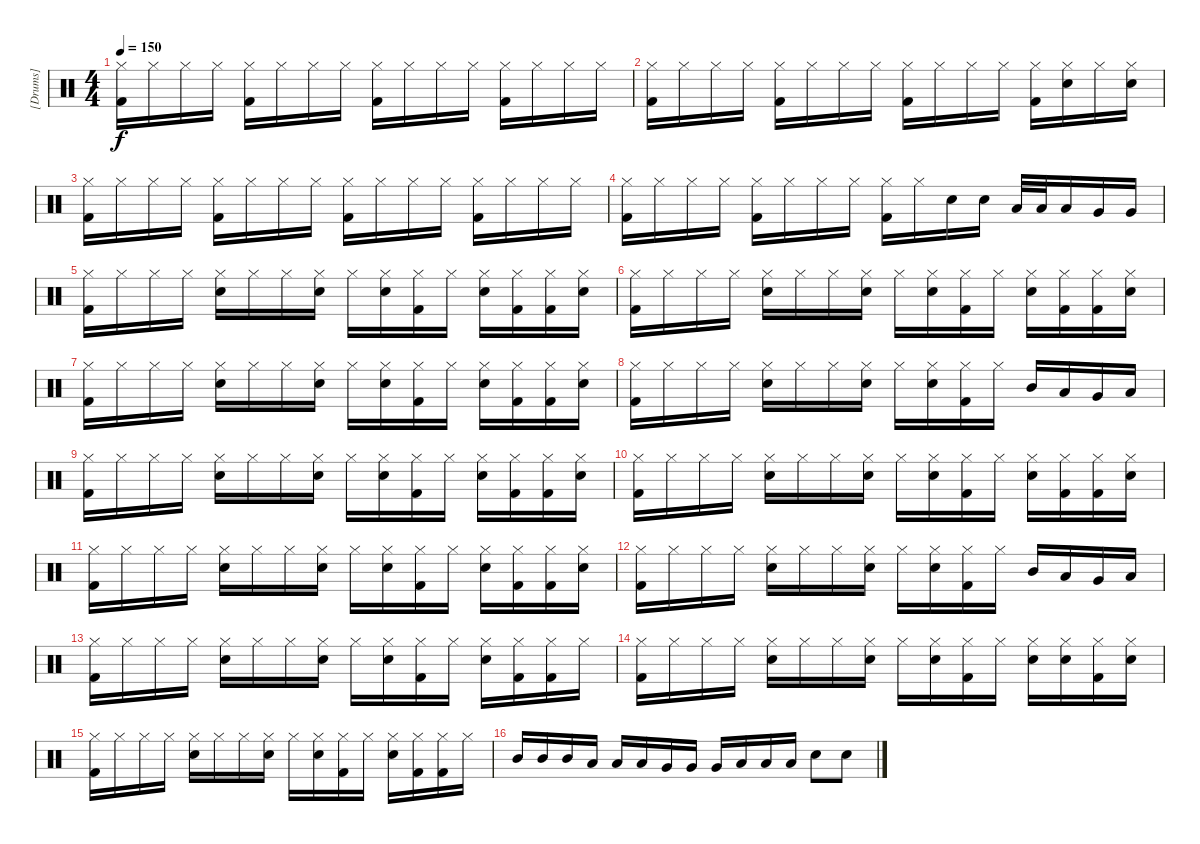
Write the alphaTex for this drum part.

\track ("[Drums]" "[Drums]") {instrument percussion}
\staff {score}
\articulation defaults
\ts (4 4)
\tempo 150
\clef neutral
\ks c
("Hi-Hat (closed)" "Kick (hit) 2").16{dy f} "Hi-Hat (closed)".16 "Hi-Hat (closed)".16 "Hi-Hat (closed)".16 ("Hi-Hat (closed)" "Kick (hit) 2").16 "Hi-Hat (closed)".16 "Hi-Hat (closed)".16 "Hi-Hat (closed)".16 ("Hi-Hat (closed)" "Kick (hit) 2").16 "Hi-Hat (closed)".16 "Hi-Hat (closed)".16 "Hi-Hat (closed)".16 ("Hi-Hat (closed)" "Kick (hit) 2").16 "Hi-Hat (closed)".16 "Hi-Hat (closed)".16 "Hi-Hat (closed)".16 |
("Hi-Hat (closed)" "Kick (hit) 2").16 "Hi-Hat (closed)".16 "Hi-Hat (closed)".16 "Hi-Hat (closed)".16 ("Hi-Hat (closed)" "Kick (hit) 2").16 "Hi-Hat (closed)".16 "Hi-Hat (closed)".16 "Hi-Hat (closed)".16 ("Hi-Hat (closed)" "Kick (hit) 2").16 "Hi-Hat (closed)".16 "Hi-Hat (closed)".16 "Hi-Hat (closed)".16 ("Hi-Hat (closed)" "Kick (hit) 2").16 ("Hi-Hat (closed)" "Electric Snare (hit)").16 "Hi-Hat (closed)".16 ("Hi-Hat (closed)" "Electric Snare (hit)").16 |
("Hi-Hat (closed)" "Kick (hit) 2").16 "Hi-Hat (closed)".16 "Hi-Hat (closed)".16 "Hi-Hat (closed)".16 ("Hi-Hat (closed)" "Kick (hit) 2").16 "Hi-Hat (closed)".16 "Hi-Hat (closed)".16 "Hi-Hat (closed)".16 ("Hi-Hat (closed)" "Kick (hit) 2").16 "Hi-Hat (closed)".16 "Hi-Hat (closed)".16 "Hi-Hat (closed)".16 ("Hi-Hat (closed)" "Kick (hit) 2").16 "Hi-Hat (closed)".16 "Hi-Hat (closed)".16 "Hi-Hat (closed)".16 |
("Hi-Hat (closed)" "Kick (hit) 2").16 "Hi-Hat (closed)".16 "Hi-Hat (closed)".16 "Hi-Hat (closed)".16 ("Hi-Hat (closed)" "Kick (hit) 2").16 "Hi-Hat (closed)".16 "Hi-Hat (closed)".16 "Hi-Hat (closed)".16 ("Hi-Hat (closed)" "Kick (hit) 2").16 "Hi-Hat (closed)".16 "Electric Snare (hit)".16 "Electric Snare (hit)".16 "Low Tom (hit)".32 "Low Tom (hit)".32 "Low Tom (hit)".16 "Very Low Tom (hit)".16 "Very Low Tom (hit)".16 |
("Hi-Hat (closed)" "Kick (hit) 2").16 "Hi-Hat (closed)".16 "Hi-Hat (closed)".16 "Hi-Hat (closed)".16 ("Hi-Hat (closed)" "Electric Snare (hit)").16 "Hi-Hat (closed)".16 "Hi-Hat (closed)".16 ("Hi-Hat (closed)" "Electric Snare (hit)").16 "Hi-Hat (closed)".16 ("Hi-Hat (closed)" "Electric Snare (hit)").16 ("Hi-Hat (closed)" "Kick (hit) 2").16 "Hi-Hat (closed)".16 ("Hi-Hat (closed)" "Electric Snare (hit)").16 ("Hi-Hat (closed)" "Kick (hit) 2").16 ("Hi-Hat (closed)" "Kick (hit) 2").16 ("Hi-Hat (closed)" "Electric Snare (hit)").16 |
("Hi-Hat (closed)" "Kick (hit) 2").16 "Hi-Hat (closed)".16 "Hi-Hat (closed)".16 "Hi-Hat (closed)".16 ("Hi-Hat (closed)" "Electric Snare (hit)").16 "Hi-Hat (closed)".16 "Hi-Hat (closed)".16 ("Hi-Hat (closed)" "Electric Snare (hit)").16 "Hi-Hat (closed)".16 ("Hi-Hat (closed)" "Electric Snare (hit)").16 ("Hi-Hat (closed)" "Kick (hit) 2").16 "Hi-Hat (closed)".16 ("Hi-Hat (closed)" "Electric Snare (hit)").16 ("Hi-Hat (closed)" "Kick (hit) 2").16 ("Hi-Hat (closed)" "Kick (hit) 2").16 ("Hi-Hat (closed)" "Electric Snare (hit)").16 |
("Hi-Hat (closed)" "Kick (hit) 2").16 "Hi-Hat (closed)".16 "Hi-Hat (closed)".16 "Hi-Hat (closed)".16 ("Hi-Hat (closed)" "Electric Snare (hit)").16 "Hi-Hat (closed)".16 "Hi-Hat (closed)".16 ("Hi-Hat (closed)" "Electric Snare (hit)").16 "Hi-Hat (closed)".16 ("Hi-Hat (closed)" "Electric Snare (hit)").16 ("Hi-Hat (closed)" "Kick (hit) 2").16 "Hi-Hat (closed)".16 ("Hi-Hat (closed)" "Electric Snare (hit)").16 ("Hi-Hat (closed)" "Kick (hit) 2").16 ("Hi-Hat (closed)" "Kick (hit) 2").16 ("Hi-Hat (closed)" "Electric Snare (hit)").16 |
("Hi-Hat (closed)" "Kick (hit) 2").16 "Hi-Hat (closed)".16 "Hi-Hat (closed)".16 "Hi-Hat (closed)".16 ("Hi-Hat (closed)" "Electric Snare (hit)").16 "Hi-Hat (closed)".16 "Hi-Hat (closed)".16 ("Hi-Hat (closed)" "Electric Snare (hit)").16 "Hi-Hat (closed)".16 ("Hi-Hat (closed)" "Electric Snare (hit)").16 ("Hi-Hat (closed)" "Kick (hit) 2").16 "Hi-Hat (closed)".16 "Mid Tom (hit)".16 "Low Tom (hit)".16 "Very Low Tom (hit)".16 "Low Floor Tom (hit)".16 |
("Hi-Hat (closed)" "Kick (hit) 2").16 "Hi-Hat (closed)".16 "Hi-Hat (closed)".16 "Hi-Hat (closed)".16 ("Hi-Hat (closed)" "Electric Snare (hit)").16 "Hi-Hat (closed)".16 "Hi-Hat (closed)".16 ("Hi-Hat (closed)" "Electric Snare (hit)").16 "Hi-Hat (closed)".16 ("Hi-Hat (closed)" "Electric Snare (hit)").16 ("Hi-Hat (closed)" "Kick (hit) 2").16 "Hi-Hat (closed)".16 ("Hi-Hat (closed)" "Electric Snare (hit)").16 ("Hi-Hat (closed)" "Kick (hit) 2").16 ("Hi-Hat (closed)" "Kick (hit) 2").16 ("Hi-Hat (closed)" "Electric Snare (hit)").16 |
("Hi-Hat (closed)" "Kick (hit) 2").16 "Hi-Hat (closed)".16 "Hi-Hat (closed)".16 "Hi-Hat (closed)".16 ("Hi-Hat (closed)" "Electric Snare (hit)").16 "Hi-Hat (closed)".16 "Hi-Hat (closed)".16 ("Hi-Hat (closed)" "Electric Snare (hit)").16 "Hi-Hat (closed)".16 ("Hi-Hat (closed)" "Electric Snare (hit)").16 ("Hi-Hat (closed)" "Kick (hit) 2").16 "Hi-Hat (closed)".16 ("Hi-Hat (closed)" "Electric Snare (hit)").16 ("Hi-Hat (closed)" "Kick (hit) 2").16 ("Hi-Hat (closed)" "Kick (hit) 2").16 ("Hi-Hat (closed)" "Electric Snare (hit)").16 |
("Hi-Hat (closed)" "Kick (hit) 2").16 "Hi-Hat (closed)".16 "Hi-Hat (closed)".16 "Hi-Hat (closed)".16 ("Hi-Hat (closed)" "Electric Snare (hit)").16 "Hi-Hat (closed)".16 "Hi-Hat (closed)".16 ("Hi-Hat (closed)" "Electric Snare (hit)").16 "Hi-Hat (closed)".16 ("Hi-Hat (closed)" "Electric Snare (hit)").16 ("Hi-Hat (closed)" "Kick (hit) 2").16 "Hi-Hat (closed)".16 ("Hi-Hat (closed)" "Electric Snare (hit)").16 ("Hi-Hat (closed)" "Kick (hit) 2").16 ("Hi-Hat (closed)" "Kick (hit) 2").16 ("Hi-Hat (closed)" "Electric Snare (hit)").16 |
("Hi-Hat (closed)" "Kick (hit) 2").16 "Hi-Hat (closed)".16 "Hi-Hat (closed)".16 "Hi-Hat (closed)".16 ("Hi-Hat (closed)" "Electric Snare (hit)").16 "Hi-Hat (closed)".16 "Hi-Hat (closed)".16 ("Hi-Hat (closed)" "Electric Snare (hit)").16 "Hi-Hat (closed)".16 ("Hi-Hat (closed)" "Electric Snare (hit)").16 ("Hi-Hat (closed)" "Kick (hit) 2").16 "Hi-Hat (closed)".16 "Mid Tom (hit)".16 "Low Tom (hit)".16 "Very Low Tom (hit)".16 "Low Floor Tom (hit)".16 |
("Hi-Hat (closed)" "Kick (hit) 2").16 "Hi-Hat (closed)".16 "Hi-Hat (closed)".16 "Hi-Hat (closed)".16 ("Hi-Hat (closed)" "Electric Snare (hit)").16 "Hi-Hat (closed)".16 "Hi-Hat (closed)".16 ("Hi-Hat (closed)" "Electric Snare (hit)").16 "Hi-Hat (closed)".16 ("Hi-Hat (closed)" "Electric Snare (hit)").16 ("Hi-Hat (closed)" "Kick (hit) 2").16 "Hi-Hat (closed)".16 ("Hi-Hat (closed)" "Electric Snare (hit)").16 ("Hi-Hat (closed)" "Kick (hit) 2").16 ("Hi-Hat (closed)" "Kick (hit) 2").16 "Hi-Hat (closed)".16 |
("Hi-Hat (closed)" "Kick (hit) 2").16 "Hi-Hat (closed)".16 "Hi-Hat (closed)".16 "Hi-Hat (closed)".16 ("Hi-Hat (closed)" "Electric Snare (hit)").16 "Hi-Hat (closed)".16 "Hi-Hat (closed)".16 ("Hi-Hat (closed)" "Electric Snare (hit)").16 "Hi-Hat (closed)".16 ("Hi-Hat (closed)" "Electric Snare (hit)").16 ("Hi-Hat (closed)" "Kick (hit) 2").16 "Hi-Hat (closed)".16 ("Hi-Hat (closed)" "Electric Snare (hit)").16 ("Hi-Hat (closed)" "Electric Snare (hit)").16 ("Hi-Hat (closed)" "Kick (hit) 2").16 ("Hi-Hat (closed)" "Electric Snare (hit)").16 |
("Hi-Hat (closed)" "Kick (hit) 2").16 "Hi-Hat (closed)".16 "Hi-Hat (closed)".16 "Hi-Hat (closed)".16 ("Hi-Hat (closed)" "Electric Snare (hit)").16 "Hi-Hat (closed)".16 "Hi-Hat (closed)".16 ("Hi-Hat (closed)" "Electric Snare (hit)").16 "Hi-Hat (closed)".16 ("Hi-Hat (closed)" "Electric Snare (hit)").16 ("Hi-Hat (closed)" "Kick (hit) 2").16 "Hi-Hat (closed)".16 ("Hi-Hat (closed)" "Electric Snare (hit)").16 ("Hi-Hat (closed)" "Kick (hit) 2").16 ("Hi-Hat (closed)" "Kick (hit) 2").16 "Hi-Hat (closed)".16 |
"Mid Tom (hit)".16 "Mid Tom (hit)".16 "Mid Tom (hit)".16 "Low Tom (hit)".16 "Low Tom (hit)".16 "Low Tom (hit)".16 "Very Low Tom (hit)".16 "Very Low Tom (hit)".16 "Very Low Tom (hit)".16 "Low Floor Tom (hit)".16 "Low Floor Tom (hit)".16 "Low Floor Tom (hit)".16 "Electric Snare (hit)".8 "Electric Snare (hit)".8
